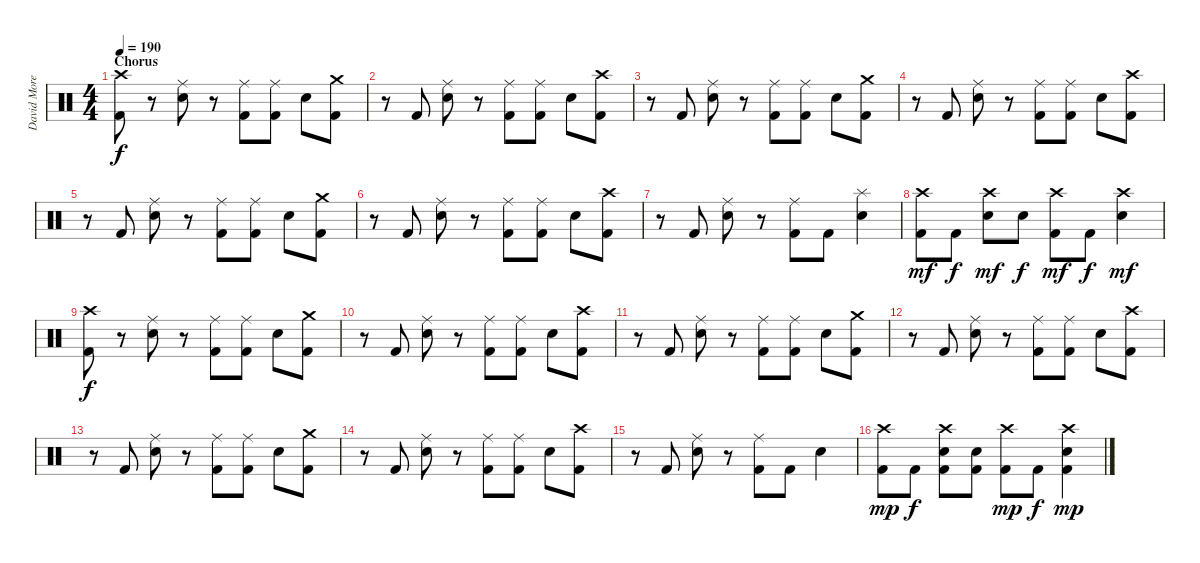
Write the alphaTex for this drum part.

\track ("David Moreno" "David More") {instrument percussion}
\staff {score}
\articulation defaults
\ts (4 4)
\section ("" "Chorus")
\tempo 190
\clef neutral
\ks c
("Crash high (hit)" "Kick (hit) 2").8{dy f} r.8 ("Ride (middle)" "Snare (hit) 2").8 r.8 ("Ride (middle)" "Kick (hit) 2").8 ("Ride (middle)" "Kick (hit) 2").8 "Snare (hit) 2".8 ("Crash medium (hit)" "Kick (hit) 2").8 |
r.8 "Kick (hit) 2".8 ("Ride (middle)" "Snare (hit) 2").8 r.8 ("Ride (middle)" "Kick (hit) 2").8 ("Ride (middle)" "Kick (hit) 2").8 "Snare (hit) 2".8 ("Crash high (hit)" "Kick (hit) 2").8 |
r.8 "Kick (hit) 2".8 ("Ride (middle)" "Snare (hit) 2").8 r.8 ("Ride (middle)" "Kick (hit) 2").8 ("Ride (middle)" "Kick (hit) 2").8 "Snare (hit) 2".8 ("Crash medium (hit)" "Kick (hit) 2").8 |
r.8 "Kick (hit) 2".8 ("Ride (middle)" "Snare (hit) 2").8 r.8 ("Ride (middle)" "Kick (hit) 2").8 ("Ride (middle)" "Kick (hit) 2").8 "Snare (hit) 2".8 ("Crash high (hit)" "Kick (hit) 2").8 |
r.8 "Kick (hit) 2".8 ("Ride (middle)" "Snare (hit) 2").8 r.8 ("Ride (middle)" "Kick (hit) 2").8 ("Ride (middle)" "Kick (hit) 2").8 "Snare (hit) 2".8 ("Crash medium (hit)" "Kick (hit) 2").8 |
r.8 "Kick (hit) 2".8 ("Ride (middle)" "Snare (hit) 2").8 r.8 ("Ride (middle)" "Kick (hit) 2").8 ("Ride (middle)" "Kick (hit) 2").8 "Snare (hit) 2".8 ("Crash high (hit)" "Kick (hit) 2").8 |
r.8 "Kick (hit) 2".8 ("Ride (middle)" "Snare (hit) 2").8 r.8 ("Ride (middle)" "Kick (hit) 2").8 "Kick (hit) 2".8 ("Splash (hit)" "Snare (hit) 2").4 |
("Crash high (hit)" "Kick (hit) 2").8{dy mf} "Kick (hit) 2".8{dy f} ("Crash high (hit)" "Snare (hit) 2").8{dy mf} "Snare (hit) 2".8{dy f} ("Crash high (hit)" "Kick (hit) 2").8{dy mf} "Kick (hit) 2".8{dy f} ("Crash high (hit)" "Snare (hit) 2").4{dy mf} |
("Crash high (hit)" "Kick (hit) 2").8{dy f} r.8 ("Ride (middle)" "Snare (hit) 2").8 r.8 ("Ride (middle)" "Kick (hit) 2").8 ("Ride (middle)" "Kick (hit) 2").8 "Snare (hit) 2".8 ("Crash medium (hit)" "Kick (hit) 2").8 |
r.8 "Kick (hit) 2".8 ("Ride (middle)" "Snare (hit) 2").8 r.8 ("Ride (middle)" "Kick (hit) 2").8 ("Ride (middle)" "Kick (hit) 2").8 "Snare (hit) 2".8 ("Crash high (hit)" "Kick (hit) 2").8 |
r.8 "Kick (hit) 2".8 ("Ride (middle)" "Snare (hit) 2").8 r.8 ("Ride (middle)" "Kick (hit) 2").8 ("Ride (middle)" "Kick (hit) 2").8 "Snare (hit) 2".8 ("Crash medium (hit)" "Kick (hit) 2").8 |
r.8 "Kick (hit) 2".8 ("Ride (middle)" "Snare (hit) 2").8 r.8 ("Ride (middle)" "Kick (hit) 2").8 ("Ride (middle)" "Kick (hit) 2").8 "Snare (hit) 2".8 ("Crash high (hit)" "Kick (hit) 2").8 |
r.8 "Kick (hit) 2".8 ("Ride (middle)" "Snare (hit) 2").8 r.8 ("Ride (middle)" "Kick (hit) 2").8 ("Ride (middle)" "Kick (hit) 2").8 "Snare (hit) 2".8 ("Crash medium (hit)" "Kick (hit) 2").8 |
r.8 "Kick (hit) 2".8 ("Ride (middle)" "Snare (hit) 2").8 r.8 ("Ride (middle)" "Kick (hit) 2").8 ("Ride (middle)" "Kick (hit) 2").8 "Snare (hit) 2".8 ("Crash high (hit)" "Kick (hit) 2").8 |
r.8 "Kick (hit) 2".8 ("Ride (middle)" "Snare (hit) 2").8 r.8 ("Ride (middle)" "Kick (hit) 2").8 "Kick (hit) 2".8 "Snare (hit) 2".4 |
("Crash high (hit)" "Kick (hit) 2").8{dy mp} "Kick (hit) 2".8{dy f} ("Crash high (hit)" "Snare (hit) 2" "Kick (hit) 2").8 ("Snare (hit) 2" "Kick (hit) 2").8 ("Crash high (hit)" "Kick (hit) 2").8{dy mp} "Kick (hit) 2".8{dy f} ("Crash high (hit)" "Snare (hit) 2" "Kick (hit) 2").4{dy mp}
